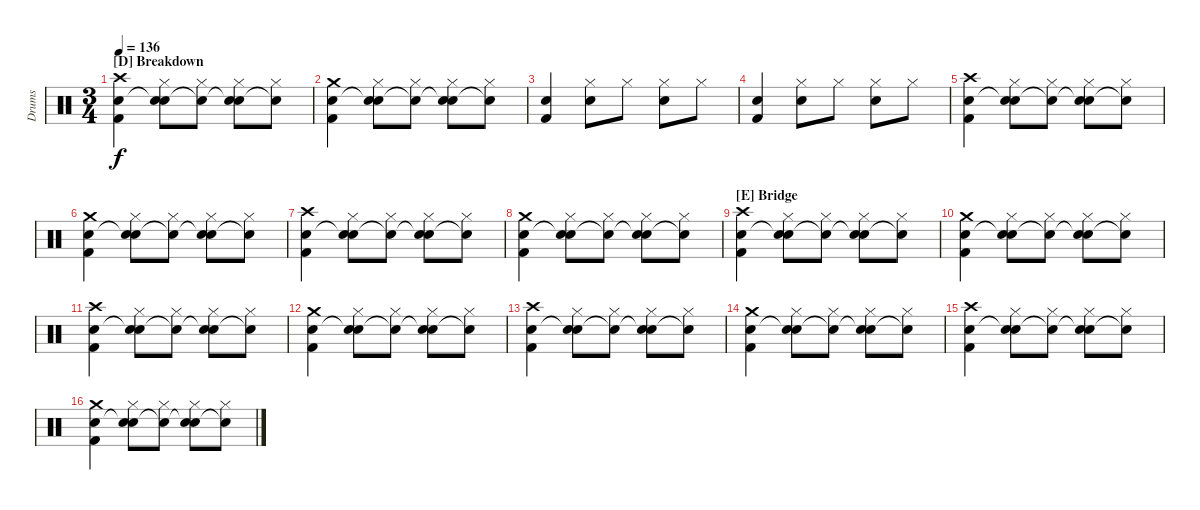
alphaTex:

\track ("Drums" "Drums") {instrument percussion}
\staff {score}
\articulation defaults
\ts (3 4)
\section ("" "[D] Breakdown")
\tempo 136
\clef neutral
\ks aminor
("Crash high (hit)" "Snare (hit) 2" "Kick (hit) 2").4{dy f} ("Hi-Hat (closed)" "Snare (hit)"{t} "Snare (hit) 2").8 ("Hi-Hat (closed)" "Snare (hit)"{t}).8 ("Hi-Hat (closed)" "Snare (hit)"{t} "Snare (hit) 2").8 ("Hi-Hat (closed)" "Snare (hit)"{t}).8 |
("Crash medium (hit)" "Snare (hit) 2" "Kick (hit) 2").4 ("Hi-Hat (closed)" "Snare (hit)"{t} "Snare (hit) 2").8 ("Hi-Hat (closed)" "Snare (hit)"{t}).8 ("Hi-Hat (closed)" "Snare (hit)"{t} "Snare (hit) 2").8 ("Hi-Hat (closed)" "Snare (hit)"{t}).8 |
("Snare (hit) 2" "Kick (hit) 2").4 ("Hi-Hat (closed)" "Snare (hit) 2").8 "Hi-Hat (closed)".8 ("Hi-Hat (closed)" "Snare (hit) 2").8 "Hi-Hat (closed)".8 |
("Snare (hit) 2" "Kick (hit) 2").4 ("Hi-Hat (closed)" "Snare (hit) 2").8 "Hi-Hat (closed)".8 ("Hi-Hat (closed)" "Snare (hit) 2").8 "Hi-Hat (closed)".8 |
("Crash high (hit)" "Snare (hit) 2" "Kick (hit) 2").4 ("Hi-Hat (closed)" "Snare (hit)"{t} "Snare (hit) 2").8 ("Hi-Hat (closed)" "Snare (hit)"{t}).8 ("Hi-Hat (closed)" "Snare (hit)"{t} "Snare (hit) 2").8 ("Hi-Hat (closed)" "Snare (hit)"{t}).8 |
("Crash medium (hit)" "Snare (hit) 2" "Kick (hit) 2").4 ("Hi-Hat (closed)" "Snare (hit)"{t} "Snare (hit) 2").8 ("Hi-Hat (closed)" "Snare (hit)"{t}).8 ("Hi-Hat (closed)" "Snare (hit)"{t} "Snare (hit) 2").8 ("Hi-Hat (closed)" "Snare (hit)"{t}).8 |
("Crash high (hit)" "Snare (hit) 2" "Kick (hit) 2").4 ("Hi-Hat (closed)" "Snare (hit)"{t} "Snare (hit) 2").8 ("Hi-Hat (closed)" "Snare (hit)"{t}).8 ("Hi-Hat (closed)" "Snare (hit)"{t} "Snare (hit) 2").8 ("Hi-Hat (closed)" "Snare (hit)"{t}).8 |
("Crash medium (hit)" "Snare (hit) 2" "Kick (hit) 2").4 ("Hi-Hat (closed)" "Snare (hit)"{t} "Snare (hit) 2").8 ("Hi-Hat (closed)" "Snare (hit)"{t}).8 ("Hi-Hat (closed)" "Snare (hit)"{t} "Snare (hit) 2").8 ("Hi-Hat (closed)" "Snare (hit)"{t}).8 |
\section ("" "[E] Bridge")
("Crash high (hit)" "Snare (hit) 2" "Kick (hit) 2").4 ("Hi-Hat (closed)" "Snare (hit)"{t} "Snare (hit) 2").8 ("Hi-Hat (closed)" "Snare (hit)"{t}).8 ("Hi-Hat (closed)" "Snare (hit)"{t} "Snare (hit) 2").8 ("Hi-Hat (closed)" "Snare (hit)"{t}).8 |
("Crash medium (hit)" "Snare (hit) 2" "Kick (hit) 2").4 ("Hi-Hat (closed)" "Snare (hit)"{t} "Snare (hit) 2").8 ("Hi-Hat (closed)" "Snare (hit)"{t}).8 ("Hi-Hat (closed)" "Snare (hit)"{t} "Snare (hit) 2").8 ("Hi-Hat (closed)" "Snare (hit)"{t}).8 |
("Crash high (hit)" "Snare (hit) 2" "Kick (hit) 2").4 ("Hi-Hat (closed)" "Snare (hit)"{t} "Snare (hit) 2").8 ("Hi-Hat (closed)" "Snare (hit)"{t}).8 ("Hi-Hat (closed)" "Snare (hit)"{t} "Snare (hit) 2").8 ("Hi-Hat (closed)" "Snare (hit)"{t}).8 |
("Crash medium (hit)" "Snare (hit) 2" "Kick (hit) 2").4 ("Hi-Hat (closed)" "Snare (hit)"{t} "Snare (hit) 2").8 ("Hi-Hat (closed)" "Snare (hit)"{t}).8 ("Hi-Hat (closed)" "Snare (hit)"{t} "Snare (hit) 2").8 ("Hi-Hat (closed)" "Snare (hit)"{t}).8 |
("Crash high (hit)" "Snare (hit) 2" "Kick (hit) 2").4 ("Hi-Hat (closed)" "Snare (hit)"{t} "Snare (hit) 2").8 ("Hi-Hat (closed)" "Snare (hit)"{t}).8 ("Hi-Hat (closed)" "Snare (hit)"{t} "Snare (hit) 2").8 ("Hi-Hat (closed)" "Snare (hit)"{t}).8 |
("Crash medium (hit)" "Snare (hit) 2" "Kick (hit) 2").4 ("Hi-Hat (closed)" "Snare (hit)"{t} "Snare (hit) 2").8 ("Hi-Hat (closed)" "Snare (hit)"{t}).8 ("Hi-Hat (closed)" "Snare (hit)"{t} "Snare (hit) 2").8 ("Hi-Hat (closed)" "Snare (hit)"{t}).8 |
("Crash high (hit)" "Snare (hit) 2" "Kick (hit) 2").4 ("Hi-Hat (closed)" "Snare (hit)"{t} "Snare (hit) 2").8 ("Hi-Hat (closed)" "Snare (hit)"{t}).8 ("Hi-Hat (closed)" "Snare (hit)"{t} "Snare (hit) 2").8 ("Hi-Hat (closed)" "Snare (hit)"{t}).8 |
("Crash medium (hit)" "Snare (hit) 2" "Kick (hit) 2").4 ("Hi-Hat (closed)" "Snare (hit)"{t} "Snare (hit) 2").8 ("Hi-Hat (closed)" "Snare (hit)"{t}).8 ("Hi-Hat (closed)" "Snare (hit)"{t} "Snare (hit) 2").8 ("Hi-Hat (closed)" "Snare (hit)"{t}).8
